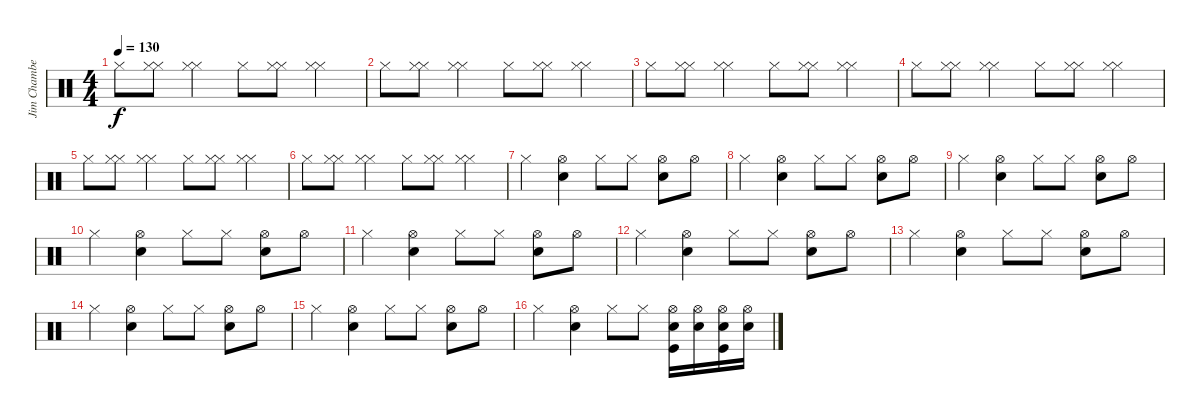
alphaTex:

\track ("Jim Chamberlin (Drums)" "Jim Chambe") {instrument percussion}
\staff {score}
\articulation defaults
\ts (4 4)
\tempo 130
\clef neutral
\ks c "Hi-Hat (closed)".8{dy f}
("Hi-Hat (closed)" "Hi-Hat (closed)").8 ("Hi-Hat (closed)" "Hi-Hat (closed)").4 "Hi-Hat (closed)".8 ("Hi-Hat (closed)" "Hi-Hat (closed)").8 ("Hi-Hat (closed)" "Hi-Hat (closed)").4 |
"Hi-Hat (closed)".8 ("Hi-Hat (closed)" "Hi-Hat (closed)").8 ("Hi-Hat (closed)" "Hi-Hat (closed)").4 "Hi-Hat (closed)".8 ("Hi-Hat (closed)" "Hi-Hat (closed)").8 ("Hi-Hat (closed)" "Hi-Hat (closed)").4 |
"Hi-Hat (closed)".8 ("Hi-Hat (closed)" "Hi-Hat (closed)").8 ("Hi-Hat (closed)" "Hi-Hat (closed)").4 "Hi-Hat (closed)".8 ("Hi-Hat (closed)" "Hi-Hat (closed)").8 ("Hi-Hat (closed)" "Hi-Hat (closed)").4 |
"Hi-Hat (closed)".8 ("Hi-Hat (closed)" "Hi-Hat (closed)").8 ("Hi-Hat (closed)" "Hi-Hat (closed)").4 "Hi-Hat (closed)".8 ("Hi-Hat (closed)" "Hi-Hat (closed)").8 ("Hi-Hat (closed)" "Hi-Hat (closed)").4 |
"Hi-Hat (closed)".8 ("Hi-Hat (closed)" "Hi-Hat (closed)").8 ("Hi-Hat (closed)" "Hi-Hat (closed)").4 "Hi-Hat (closed)".8 ("Hi-Hat (closed)" "Hi-Hat (closed)").8 ("Hi-Hat (closed)" "Hi-Hat (closed)").4 |
"Hi-Hat (closed)".8 ("Hi-Hat (closed)" "Hi-Hat (closed)").8 ("Hi-Hat (closed)" "Hi-Hat (closed)").4 "Hi-Hat (closed)".8 ("Hi-Hat (closed)" "Hi-Hat (closed)").8 ("Hi-Hat (closed)" "Hi-Hat (closed)").4 |
"Hi-Hat (closed)".4 ("Snare (hit) 2" "Hi-Hat (open)").4 "Hi-Hat (closed)".8 "Hi-Hat (closed)".8 ("Snare (hit) 2" "Hi-Hat (open)").8 "Hi-Hat (open)".8 |
"Hi-Hat (closed)".4 ("Snare (hit) 2" "Hi-Hat (open)").4 "Hi-Hat (closed)".8 "Hi-Hat (closed)".8 ("Snare (hit) 2" "Hi-Hat (open)").8 "Hi-Hat (open)".8 |
"Hi-Hat (closed)".4 ("Snare (hit) 2" "Hi-Hat (open)").4 "Hi-Hat (closed)".8 "Hi-Hat (closed)".8 ("Snare (hit) 2" "Hi-Hat (open)").8 "Hi-Hat (open)".8 |
"Hi-Hat (closed)".4 ("Snare (hit) 2" "Hi-Hat (open)").4 "Hi-Hat (closed)".8 "Hi-Hat (closed)".8 ("Snare (hit) 2" "Hi-Hat (open)").8 "Hi-Hat (open)".8 |
"Hi-Hat (closed)".4 ("Snare (hit) 2" "Hi-Hat (open)").4 "Hi-Hat (closed)".8 "Hi-Hat (closed)".8 ("Snare (hit) 2" "Hi-Hat (open)").8 "Hi-Hat (open)".8 |
"Hi-Hat (closed)".4 ("Snare (hit) 2" "Hi-Hat (open)").4 "Hi-Hat (closed)".8 "Hi-Hat (closed)".8 ("Snare (hit) 2" "Hi-Hat (open)").8 "Hi-Hat (open)".8 |
"Hi-Hat (closed)".4 ("Snare (hit) 2" "Hi-Hat (open)").4 "Hi-Hat (closed)".8 "Hi-Hat (closed)".8 ("Snare (hit) 2" "Hi-Hat (open)").8 "Hi-Hat (open)".8 |
"Hi-Hat (closed)".4 ("Snare (hit) 2" "Hi-Hat (open)").4 "Hi-Hat (closed)".8 "Hi-Hat (closed)".8 ("Snare (hit) 2" "Hi-Hat (open)").8 "Hi-Hat (open)".8 |
"Hi-Hat (closed)".4 ("Snare (hit) 2" "Hi-Hat (open)").4 "Hi-Hat (closed)".8 "Hi-Hat (closed)".8 ("Snare (hit) 2" "Hi-Hat (open)").8 "Hi-Hat (open)".8 |
"Hi-Hat (closed)".4 ("Snare (hit) 2" "Hi-Hat (open)").4 "Hi-Hat (closed)".8 "Hi-Hat (closed)".8 ("Snare (hit) 2" "Hi-Hat (open)" "Kick (hit)").16 ("Snare (hit) 2" "Hi-Hat (open)").16 ("Snare (hit) 2" "Hi-Hat (open)" "Kick (hit)").16 ("Snare (hit) 2" "Hi-Hat (open)").16
